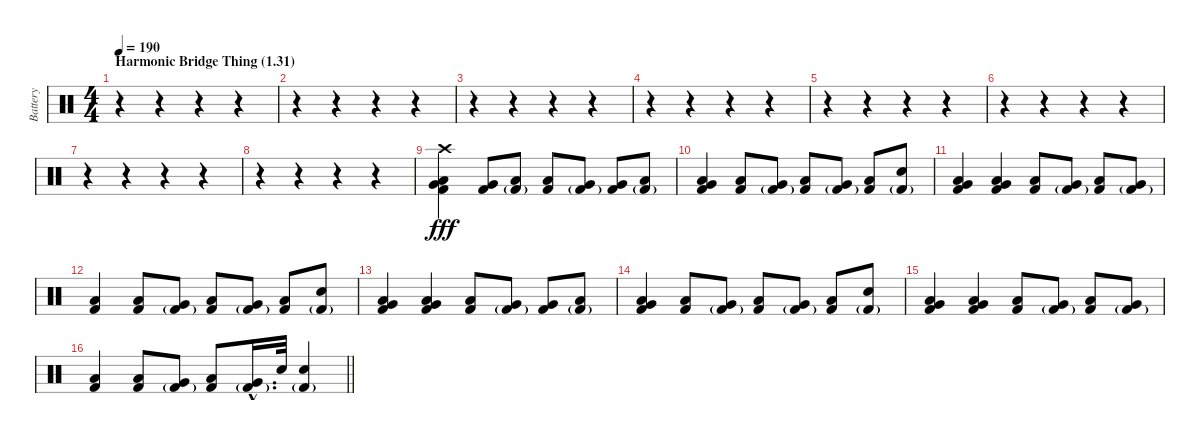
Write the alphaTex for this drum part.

\track ("Battery" "Battery") {instrument percussion}
\staff {score}
\articulation defaults
\ts (4 4)
\section ("" "Harmonic Bridge Thing (1.31)")
\tempo 190
\clef neutral
\ks c
r.4{dy fff} r.4 r.4 r.4 |
r.4 r.4 r.4 r.4 |
r.4 r.4 r.4 r.4 |
r.4 r.4 r.4 r.4 |
r.4 r.4 r.4 r.4 |
r.4 r.4 r.4 r.4 |
r.4 r.4 r.4 r.4 |
r.4 r.4 r.4 r.4 |
("Crash high (hit)" "Low Floor Tom (hit)" "Very Low Tom (hit)" "Kick (hit) 2").4 ("Very Low Tom (hit)" "Kick (hit) 2").8 ("Low Floor Tom (hit)" "Kick (hit) 2"{g}).8 ("Low Tom (hit)" "Kick (hit) 2").8 ("Very Low Tom (hit)" "Kick (hit) 2"{g}).8 ("Very Low Tom (hit)" "Kick (hit) 2").8 ("Low Floor Tom (hit)" "Kick (hit) 2"{g}).8 |
("Very Low Tom (hit)" "Low Floor Tom (hit)" "Kick (hit) 2").4 ("Low Tom (hit)" "Kick (hit) 2").8 ("Very Low Tom (hit)" "Kick (hit) 2"{g}).8 ("Low Tom (hit)" "Kick (hit) 2").8 ("Very Low Tom (hit)" "Kick (hit) 2"{g}).8 ("Low Floor Tom (hit)" "Kick (hit) 2").8 ("Electric Snare (hit)" "Kick (hit) 2"{g}).8 |
("Low Tom (hit)" "Very Low Tom (hit)" "Kick (hit) 2").4 ("Very Low Tom (hit)" "Low Floor Tom (hit)" "Kick (hit) 2").4 ("Low Tom (hit)" "Kick (hit) 2").8 ("Very Low Tom (hit)" "Kick (hit) 2"{g}).8 ("Low Tom (hit)" "Kick (hit) 2").8 ("Very Low Tom (hit)" "Kick (hit) 2"{g}).8 |
("Low Tom (hit)" "Kick (hit) 2").4 ("Low Tom (hit)" "Kick (hit) 2").8 ("Very Low Tom (hit)" "Kick (hit) 2"{g}).8 ("Low Floor Tom (hit)" "Kick (hit) 2").8 ("Very Low Tom (hit)" "Kick (hit) 2"{g}).8 ("Low Floor Tom (hit)" "Kick (hit) 2").8 ("Electric Snare (hit)" "Kick (hit) 2"{g}).8 |
("Low Floor Tom (hit)" "Very Low Tom (hit)" "Kick (hit) 2").4 ("Low Tom (hit)" "Very Low Tom (hit)" "Kick (hit) 2").4 ("Low Tom (hit)" "Kick (hit) 2").8 ("Very Low Tom (hit)" "Kick (hit) 2"{g}).8 ("Very Low Tom (hit)" "Kick (hit) 2").8 ("Low Floor Tom (hit)" "Kick (hit) 2"{g}).8 |
("Very Low Tom (hit)" "Low Floor Tom (hit)" "Kick (hit) 2").4 ("Low Tom (hit)" "Kick (hit) 2").8 ("Very Low Tom (hit)" "Kick (hit) 2"{g}).8 ("Low Tom (hit)" "Kick (hit) 2").8 ("Very Low Tom (hit)" "Kick (hit) 2"{g}).8 ("Low Floor Tom (hit)" "Kick (hit) 2").8 ("Electric Snare (hit)" "Kick (hit) 2"{g}).8 |
("Low Tom (hit)" "Very Low Tom (hit)" "Kick (hit) 2").4 ("Very Low Tom (hit)" "Low Floor Tom (hit)" "Kick (hit) 2").4 ("Low Tom (hit)" "Kick (hit) 2").8 ("Very Low Tom (hit)" "Kick (hit) 2"{g}).8 ("Low Tom (hit)" "Kick (hit) 2").8 ("Very Low Tom (hit)" "Kick (hit) 2"{g}).8 |
\barLineRight lightlight
("Low Tom (hit)" "Kick (hit) 2").4 ("Low Tom (hit)" "Kick (hit) 2").8 ("Very Low Tom (hit)" "Kick (hit) 2"{g}).8 ("Low Floor Tom (hit)" "Kick (hit) 2").8 ("Very Low Tom (hit)"{hac} "Kick (hit) 2"{g hac}).16{d} "Electric Snare (hit)".32 ("Electric Snare (hit)" "Kick (hit) 2"{g}).4
